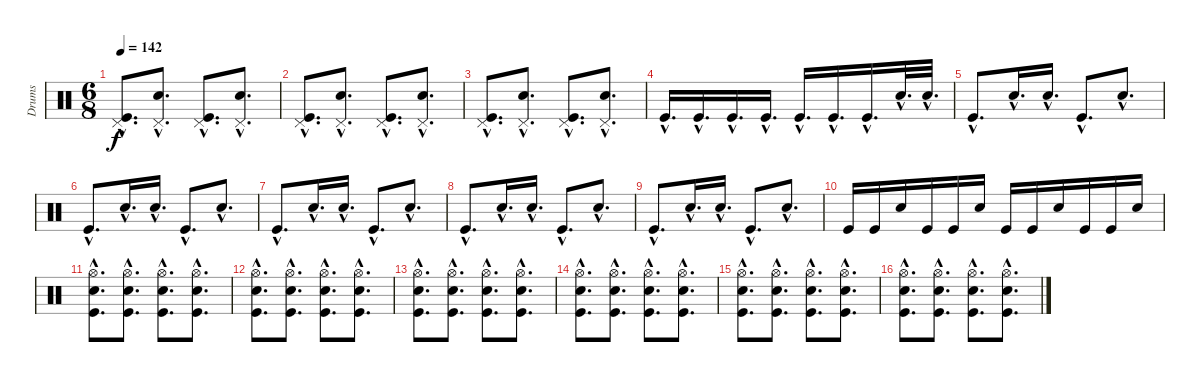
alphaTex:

\track ("Drums" "Drums") {instrument percussion}
\staff {score}
\articulation defaults
\ts (6 8)
\tempo 142
\clef neutral
\ks c
("Kick (hit)"{hac} "Pedal Hi-Hat (hit)"{hac}).8{d dy f} ("Snare (hit) 2"{hac} "Pedal Hi-Hat (hit)"{hac}).8{d} ("Kick (hit)"{hac} "Pedal Hi-Hat (hit)"{hac}).8{d} ("Snare (hit) 2"{hac} "Pedal Hi-Hat (hit)"{hac}).8{d} |
("Kick (hit)"{hac} "Pedal Hi-Hat (hit)"{hac}).8{d} ("Snare (hit) 2"{hac} "Pedal Hi-Hat (hit)"{hac}).8{d} ("Kick (hit)"{hac} "Pedal Hi-Hat (hit)"{hac}).8{d} ("Snare (hit) 2"{hac} "Pedal Hi-Hat (hit)"{hac}).8{d} |
("Kick (hit)"{hac} "Pedal Hi-Hat (hit)"{hac}).8{d} ("Snare (hit) 2"{hac} "Pedal Hi-Hat (hit)"{hac}).8{d} ("Kick (hit)"{hac} "Pedal Hi-Hat (hit)"{hac}).8{d} ("Snare (hit) 2"{hac} "Pedal Hi-Hat (hit)"{hac}).8{d} |
"Kick (hit)"{hac}.16{d} "Kick (hit)"{hac}.16{d} "Kick (hit)"{hac}.16{d} "Kick (hit)"{hac}.16{d} "Kick (hit)"{hac}.16{d} "Kick (hit)"{hac}.16{d} "Kick (hit)"{hac}.16{d} "Snare (hit) 2"{hac}.32{d} "Snare (hit) 2"{hac}.32{d} |
"Kick (hit)"{hac}.8{d} "Snare (hit) 2"{hac}.16{d} "Snare (hit) 2"{hac}.16{d} "Kick (hit)"{hac}.8{d} "Snare (hit) 2"{hac}.8{d} |
"Kick (hit)"{hac}.8{d} "Snare (hit) 2"{hac}.16{d} "Snare (hit) 2"{hac}.16{d} "Kick (hit)"{hac}.8{d} "Snare (hit) 2"{hac}.8{d} |
"Kick (hit)"{hac}.8{d} "Snare (hit) 2"{hac}.16{d} "Snare (hit) 2"{hac}.16{d} "Kick (hit)"{hac}.8{d} "Snare (hit) 2"{hac}.8{d} |
"Kick (hit)"{hac}.8{d} "Snare (hit) 2"{hac}.16{d} "Snare (hit) 2"{hac}.16{d} "Kick (hit)"{hac}.8{d} "Snare (hit) 2"{hac}.8{d} |
"Kick (hit)"{hac}.8{d} "Snare (hit) 2"{hac}.16{d} "Snare (hit) 2"{hac}.16{d} "Kick (hit)"{hac}.8{d} "Snare (hit) 2"{hac}.8{d} |
"Kick (hit)".16 "Kick (hit)".16 "Snare (hit) 2".16 "Kick (hit)".16 "Kick (hit)".16 "Snare (hit) 2".16 "Kick (hit)".16 "Kick (hit)".16 "Snare (hit) 2".16 "Kick (hit)".16 "Kick (hit)".16 "Snare (hit) 2".16 |
("Hi-Hat (open)"{hac} "Snare (hit) 2"{hac} "Kick (hit)"{hac}).8{d} ("Hi-Hat (open)"{hac} "Snare (hit) 2"{hac} "Kick (hit)"{hac}).8{d} ("Hi-Hat (open)"{hac} "Snare (hit) 2"{hac} "Kick (hit)"{hac}).8{d} ("Hi-Hat (open)"{hac} "Snare (hit) 2"{hac} "Kick (hit)"{hac}).8{d} |
("Hi-Hat (open)"{hac} "Snare (hit) 2"{hac} "Kick (hit)"{hac}).8{d} ("Hi-Hat (open)"{hac} "Snare (hit) 2"{hac} "Kick (hit)"{hac}).8{d} ("Hi-Hat (open)"{hac} "Snare (hit) 2"{hac} "Kick (hit)"{hac}).8{d} ("Hi-Hat (open)"{hac} "Snare (hit) 2"{hac} "Kick (hit)"{hac}).8{d} |
("Hi-Hat (open)"{hac} "Snare (hit) 2"{hac} "Kick (hit)"{hac}).8{d} ("Hi-Hat (open)"{hac} "Snare (hit) 2"{hac} "Kick (hit)"{hac}).8{d} ("Hi-Hat (open)"{hac} "Snare (hit) 2"{hac} "Kick (hit)"{hac}).8{d} ("Hi-Hat (open)"{hac} "Snare (hit) 2"{hac} "Kick (hit)"{hac}).8{d} |
("Hi-Hat (open)"{hac} "Snare (hit) 2"{hac} "Kick (hit)"{hac}).8{d} ("Hi-Hat (open)"{hac} "Snare (hit) 2"{hac} "Kick (hit)"{hac}).8{d} ("Hi-Hat (open)"{hac} "Snare (hit) 2"{hac} "Kick (hit)"{hac}).8{d} ("Hi-Hat (open)"{hac} "Snare (hit) 2"{hac} "Kick (hit)"{hac}).8{d} |
("Hi-Hat (open)"{hac} "Snare (hit) 2"{hac} "Kick (hit)"{hac}).8{d} ("Hi-Hat (open)"{hac} "Snare (hit) 2"{hac} "Kick (hit)"{hac}).8{d} ("Hi-Hat (open)"{hac} "Snare (hit) 2"{hac} "Kick (hit)"{hac}).8{d} ("Hi-Hat (open)"{hac} "Snare (hit) 2"{hac} "Kick (hit)"{hac}).8{d} |
("Hi-Hat (open)"{hac} "Snare (hit) 2"{hac} "Kick (hit)"{hac}).8{d} ("Hi-Hat (open)"{hac} "Snare (hit) 2"{hac} "Kick (hit)"{hac}).8{d} ("Hi-Hat (open)"{hac} "Snare (hit) 2"{hac} "Kick (hit)"{hac}).8{d} ("Hi-Hat (open)"{hac} "Snare (hit) 2"{hac} "Kick (hit)"{hac}).8{d}
